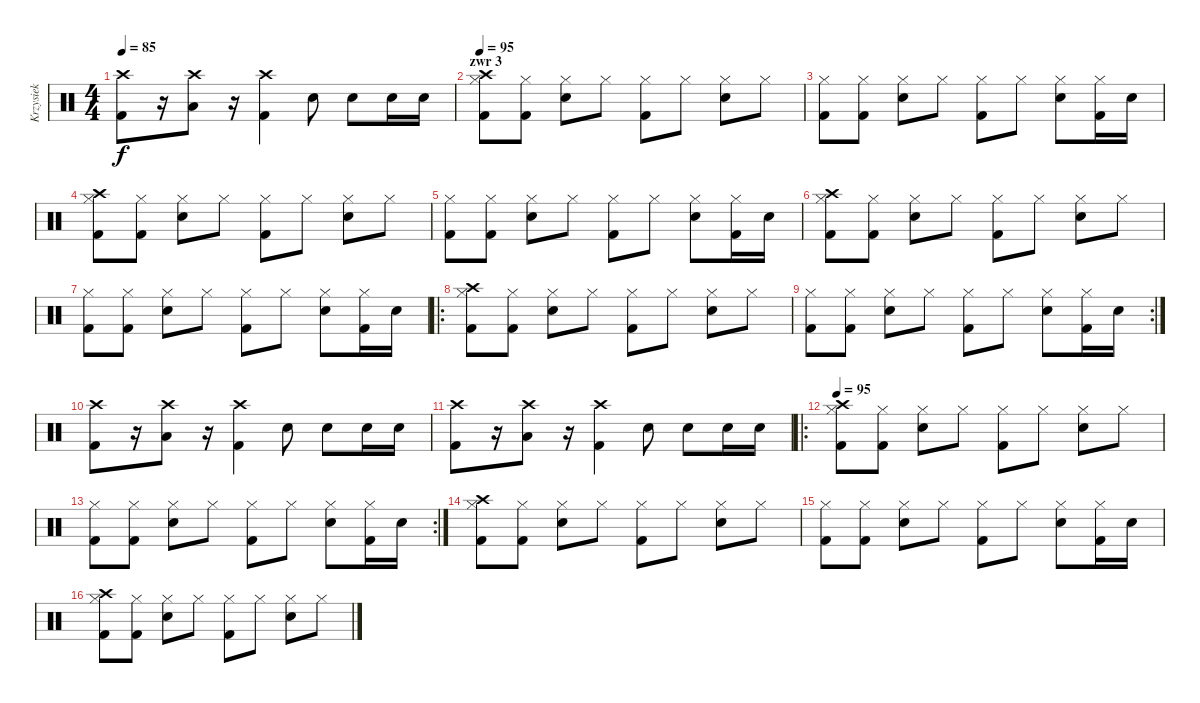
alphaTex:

\track ("Krzysiek" "Krzysiek") {instrument percussion}
\staff {score}
\articulation defaults
\ts (4 4)
\tempo 85
\clef neutral
\ks c
("Crash high (hit)" "Kick (hit) 2").8{dy f} r.16 ("Crash high (hit)" "Low Tom (hit)").8 r.16 ("Crash high (hit)" "Kick (hit) 2").4 "Electric Snare (hit)".8 "Electric Snare (hit)".8 "Electric Snare (hit)".16 "Electric Snare (hit)".16 |
\section ("" "zwr 3")
\tempo 95
("Hi-Hat (closed)" "Kick (hit) 2" "Crash high (hit)").8 ("Hi-Hat (closed)" "Kick (hit) 2").8 ("Hi-Hat (closed)" "Electric Snare (hit)").8 "Hi-Hat (closed)".8 ("Hi-Hat (closed)" "Kick (hit) 2").8 "Hi-Hat (closed)".8 ("Hi-Hat (closed)" "Electric Snare (hit)").8 "Hi-Hat (closed)".8 |
("Hi-Hat (closed)" "Kick (hit) 2").8 ("Hi-Hat (closed)" "Kick (hit) 2").8 ("Hi-Hat (closed)" "Electric Snare (hit)").8 "Hi-Hat (closed)".8 ("Hi-Hat (closed)" "Kick (hit) 2").8 "Hi-Hat (closed)".8 ("Hi-Hat (closed)" "Electric Snare (hit)").8 ("Hi-Hat (closed)" "Kick (hit) 2").16 "Electric Snare (hit)".16 |
("Hi-Hat (closed)" "Kick (hit) 2" "Crash high (hit)").8 ("Hi-Hat (closed)" "Kick (hit) 2").8 ("Hi-Hat (closed)" "Electric Snare (hit)").8 "Hi-Hat (closed)".8 ("Hi-Hat (closed)" "Kick (hit) 2").8 "Hi-Hat (closed)".8 ("Hi-Hat (closed)" "Electric Snare (hit)").8 "Hi-Hat (closed)".8 |
("Hi-Hat (closed)" "Kick (hit) 2").8 ("Hi-Hat (closed)" "Kick (hit) 2").8 ("Hi-Hat (closed)" "Electric Snare (hit)").8 "Hi-Hat (closed)".8 ("Hi-Hat (closed)" "Kick (hit) 2").8 "Hi-Hat (closed)".8 ("Hi-Hat (closed)" "Electric Snare (hit)").8 ("Hi-Hat (closed)" "Kick (hit) 2").16 "Electric Snare (hit)".16 |
("Hi-Hat (closed)" "Kick (hit) 2" "Crash high (hit)").8 ("Hi-Hat (closed)" "Kick (hit) 2").8 ("Hi-Hat (closed)" "Electric Snare (hit)").8 "Hi-Hat (closed)".8 ("Hi-Hat (closed)" "Kick (hit) 2").8 "Hi-Hat (closed)".8 ("Hi-Hat (closed)" "Electric Snare (hit)").8 "Hi-Hat (closed)".8 |
("Hi-Hat (closed)" "Kick (hit) 2").8 ("Hi-Hat (closed)" "Kick (hit) 2").8 ("Hi-Hat (closed)" "Electric Snare (hit)").8 "Hi-Hat (closed)".8 ("Hi-Hat (closed)" "Kick (hit) 2").8 "Hi-Hat (closed)".8 ("Hi-Hat (closed)" "Electric Snare (hit)").8 ("Hi-Hat (closed)" "Kick (hit) 2").16 "Electric Snare (hit)".16 |
\ro
("Hi-Hat (closed)" "Kick (hit) 2" "Crash high (hit)").8 ("Hi-Hat (closed)" "Kick (hit) 2").8 ("Hi-Hat (closed)" "Electric Snare (hit)").8 "Hi-Hat (closed)".8 ("Hi-Hat (closed)" "Kick (hit) 2").8 "Hi-Hat (closed)".8 ("Hi-Hat (closed)" "Electric Snare (hit)").8 "Hi-Hat (closed)".8 |
\rc 2
("Hi-Hat (closed)" "Kick (hit) 2").8 ("Hi-Hat (closed)" "Kick (hit) 2").8 ("Hi-Hat (closed)" "Electric Snare (hit)").8 "Hi-Hat (closed)".8 ("Hi-Hat (closed)" "Kick (hit) 2").8 "Hi-Hat (closed)".8 ("Hi-Hat (closed)" "Electric Snare (hit)").8 ("Hi-Hat (closed)" "Kick (hit) 2").16 "Electric Snare (hit)".16 |
("Crash high (hit)" "Kick (hit) 2").8 r.16 ("Crash high (hit)" "Low Tom (hit)").8 r.16 ("Crash high (hit)" "Kick (hit) 2").4 "Electric Snare (hit)".8 "Electric Snare (hit)".8 "Electric Snare (hit)".16 "Electric Snare (hit)".16 |
("Crash high (hit)" "Kick (hit) 2").8 r.16 ("Crash high (hit)" "Low Tom (hit)").8 r.16 ("Crash high (hit)" "Kick (hit) 2").4 "Electric Snare (hit)".8 "Electric Snare (hit)".8 "Electric Snare (hit)".16 "Electric Snare (hit)".16 |
\ro
\tempo 95
("Hi-Hat (closed)" "Kick (hit) 2" "Crash high (hit)").8 ("Hi-Hat (closed)" "Kick (hit) 2").8 ("Hi-Hat (closed)" "Electric Snare (hit)").8 "Hi-Hat (closed)".8 ("Hi-Hat (closed)" "Kick (hit) 2").8 "Hi-Hat (closed)".8 ("Hi-Hat (closed)" "Electric Snare (hit)").8 "Hi-Hat (closed)".8 |
\rc 2
("Hi-Hat (closed)" "Kick (hit) 2").8 ("Hi-Hat (closed)" "Kick (hit) 2").8 ("Hi-Hat (closed)" "Electric Snare (hit)").8 "Hi-Hat (closed)".8 ("Hi-Hat (closed)" "Kick (hit) 2").8 "Hi-Hat (closed)".8 ("Hi-Hat (closed)" "Electric Snare (hit)").8 ("Hi-Hat (closed)" "Kick (hit) 2").16 "Electric Snare (hit)".16 |
("Hi-Hat (closed)" "Kick (hit) 2" "Crash high (hit)").8 ("Hi-Hat (closed)" "Kick (hit) 2").8 ("Hi-Hat (closed)" "Electric Snare (hit)").8 "Hi-Hat (closed)".8 ("Hi-Hat (closed)" "Kick (hit) 2").8 "Hi-Hat (closed)".8 ("Hi-Hat (closed)" "Electric Snare (hit)").8 "Hi-Hat (closed)".8 |
("Hi-Hat (closed)" "Kick (hit) 2").8 ("Hi-Hat (closed)" "Kick (hit) 2").8 ("Hi-Hat (closed)" "Electric Snare (hit)").8 "Hi-Hat (closed)".8 ("Hi-Hat (closed)" "Kick (hit) 2").8 "Hi-Hat (closed)".8 ("Hi-Hat (closed)" "Electric Snare (hit)").8 ("Hi-Hat (closed)" "Kick (hit) 2").16 "Electric Snare (hit)".16 |
("Hi-Hat (closed)" "Kick (hit) 2" "Crash high (hit)").8 ("Hi-Hat (closed)" "Kick (hit) 2").8 ("Hi-Hat (closed)" "Electric Snare (hit)").8 "Hi-Hat (closed)".8 ("Hi-Hat (closed)" "Kick (hit) 2").8 "Hi-Hat (closed)".8 ("Hi-Hat (closed)" "Electric Snare (hit)").8 "Hi-Hat (closed)".8
